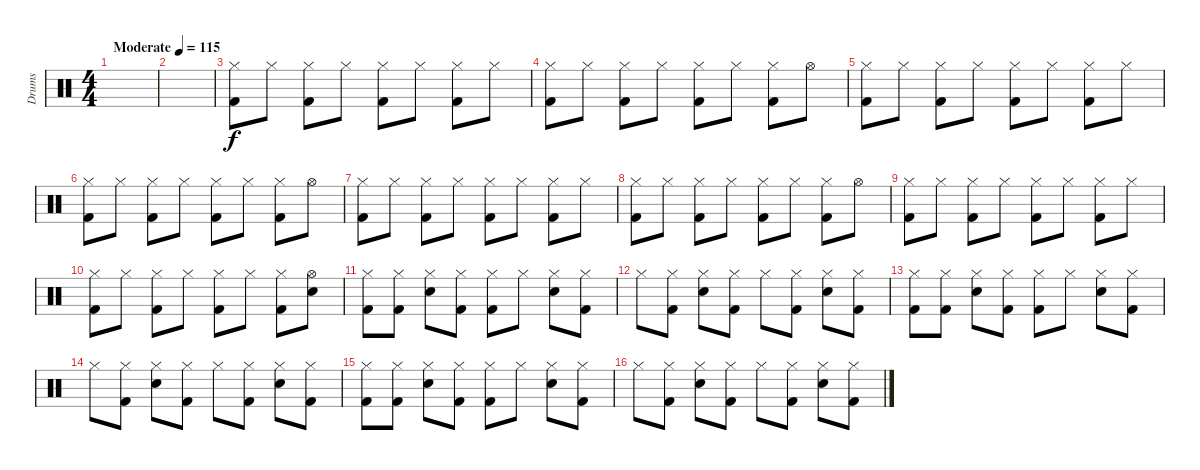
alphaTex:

\track ("Drums" "Drums") {instrument percussion}
\staff {score}
\articulation defaults
\ts (4 4)
\tempo (115 "Moderate")
\clef neutral
\ks c
|
|
("Kick (hit) 2" "Hi-Hat (closed)").8 "Hi-Hat (closed)".8 ("Hi-Hat (closed)" "Kick (hit) 2").8 "Hi-Hat (closed)".8 ("Hi-Hat (closed)" "Kick (hit) 2").8 "Hi-Hat (closed)".8 ("Hi-Hat (closed)" "Kick (hit) 2").8 "Hi-Hat (closed)".8 |
("Kick (hit) 2" "Hi-Hat (closed)").8 "Hi-Hat (closed)".8 ("Hi-Hat (closed)" "Kick (hit) 2").8 "Hi-Hat (closed)".8 ("Hi-Hat (closed)" "Kick (hit) 2").8 "Hi-Hat (closed)".8 ("Hi-Hat (closed)" "Kick (hit) 2").8 "Hi-Hat (open)".8 |
("Kick (hit) 2" "Hi-Hat (closed)").8 "Hi-Hat (closed)".8 ("Hi-Hat (closed)" "Kick (hit) 2").8 "Hi-Hat (closed)".8 ("Hi-Hat (closed)" "Kick (hit) 2").8 "Hi-Hat (closed)".8 ("Hi-Hat (closed)" "Kick (hit) 2").8 "Hi-Hat (closed)".8 |
("Kick (hit) 2" "Hi-Hat (closed)").8 "Hi-Hat (closed)".8 ("Hi-Hat (closed)" "Kick (hit) 2").8 "Hi-Hat (closed)".8 ("Hi-Hat (closed)" "Kick (hit) 2").8 "Hi-Hat (closed)".8 ("Hi-Hat (closed)" "Kick (hit) 2").8 "Hi-Hat (open)".8 |
("Kick (hit) 2" "Hi-Hat (closed)").8 "Hi-Hat (closed)".8 ("Hi-Hat (closed)" "Kick (hit) 2").8 "Hi-Hat (closed)".8 ("Hi-Hat (closed)" "Kick (hit) 2").8 "Hi-Hat (closed)".8 ("Hi-Hat (closed)" "Kick (hit) 2").8 "Hi-Hat (closed)".8 |
("Kick (hit) 2" "Hi-Hat (closed)").8 "Hi-Hat (closed)".8 ("Hi-Hat (closed)" "Kick (hit) 2").8 "Hi-Hat (closed)".8 ("Hi-Hat (closed)" "Kick (hit) 2").8 "Hi-Hat (closed)".8 ("Hi-Hat (closed)" "Kick (hit) 2").8 "Hi-Hat (open)".8 |
("Kick (hit) 2" "Hi-Hat (closed)").8 "Hi-Hat (closed)".8 ("Hi-Hat (closed)" "Kick (hit) 2").8 "Hi-Hat (closed)".8 ("Hi-Hat (closed)" "Kick (hit) 2").8 "Hi-Hat (closed)".8 ("Hi-Hat (closed)" "Kick (hit) 2").8 "Hi-Hat (closed)".8 |
("Kick (hit) 2" "Hi-Hat (closed)").8 "Hi-Hat (closed)".8 ("Hi-Hat (closed)" "Kick (hit) 2").8 "Hi-Hat (closed)".8 ("Hi-Hat (closed)" "Kick (hit) 2").8 "Hi-Hat (closed)".8 ("Hi-Hat (closed)" "Kick (hit) 2").8 ("Hi-Hat (open)" "Electric Snare (hit)").8 |
("Kick (hit) 2" "Hi-Hat (closed)").8 ("Kick (hit) 2" "Hi-Hat (closed)").8 ("Hi-Hat (closed)" "Electric Snare (hit)").8 ("Hi-Hat (closed)" "Kick (hit) 2").8 ("Hi-Hat (closed)" "Kick (hit) 2").8 "Hi-Hat (closed)".8 ("Hi-Hat (closed)" "Electric Snare (hit)").8 ("Hi-Hat (closed)" "Kick (hit) 2").8 |
"Hi-Hat (closed)".8 ("Hi-Hat (closed)" "Kick (hit) 2").8 ("Hi-Hat (closed)" "Electric Snare (hit)").8 ("Hi-Hat (closed)" "Kick (hit) 2").8 "Hi-Hat (closed)".8 ("Hi-Hat (closed)" "Kick (hit) 2").8 ("Hi-Hat (closed)" "Electric Snare (hit)").8 ("Hi-Hat (closed)" "Kick (hit) 2").8 |
("Kick (hit) 2" "Hi-Hat (closed)").8 ("Kick (hit) 2" "Hi-Hat (closed)").8 ("Hi-Hat (closed)" "Electric Snare (hit)").8 ("Hi-Hat (closed)" "Kick (hit) 2").8 ("Hi-Hat (closed)" "Kick (hit) 2").8 "Hi-Hat (closed)".8 ("Hi-Hat (closed)" "Electric Snare (hit)").8 ("Hi-Hat (closed)" "Kick (hit) 2").8 |
"Hi-Hat (closed)".8 ("Hi-Hat (closed)" "Kick (hit) 2").8 ("Hi-Hat (closed)" "Electric Snare (hit)").8 ("Hi-Hat (closed)" "Kick (hit) 2").8 "Hi-Hat (closed)".8 ("Hi-Hat (closed)" "Kick (hit) 2").8 ("Hi-Hat (closed)" "Electric Snare (hit)").8 ("Hi-Hat (closed)" "Kick (hit) 2").8 |
("Kick (hit) 2" "Hi-Hat (closed)").8 ("Kick (hit) 2" "Hi-Hat (closed)").8 ("Hi-Hat (closed)" "Electric Snare (hit)").8 ("Hi-Hat (closed)" "Kick (hit) 2").8 ("Hi-Hat (closed)" "Kick (hit) 2").8 "Hi-Hat (closed)".8 ("Hi-Hat (closed)" "Electric Snare (hit)").8 ("Hi-Hat (closed)" "Kick (hit) 2").8 |
"Hi-Hat (closed)".8 ("Hi-Hat (closed)" "Kick (hit) 2").8 ("Hi-Hat (closed)" "Electric Snare (hit)").8 ("Hi-Hat (closed)" "Kick (hit) 2").8 "Hi-Hat (closed)".8 ("Hi-Hat (closed)" "Kick (hit) 2").8 ("Hi-Hat (closed)" "Electric Snare (hit)").8 ("Hi-Hat (closed)" "Kick (hit) 2").8
